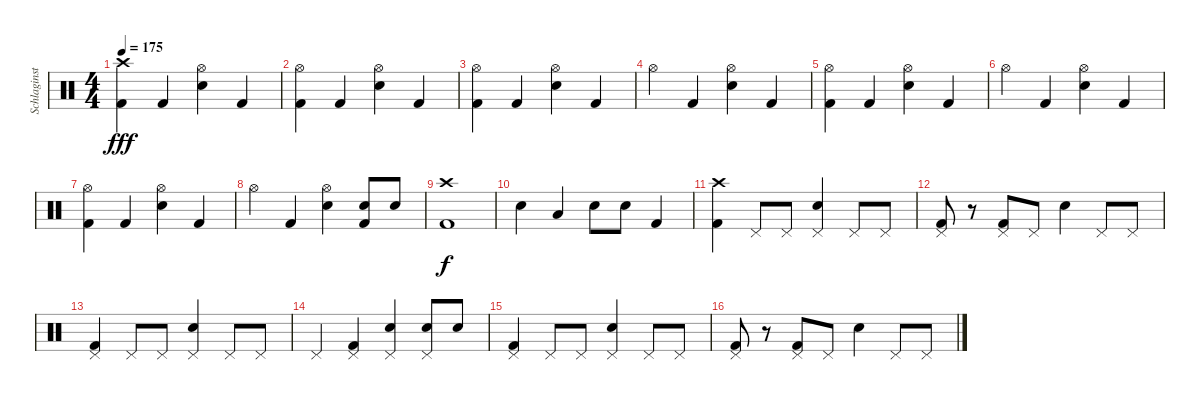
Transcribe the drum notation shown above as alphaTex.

\track ("Schlaginstrumente - Auswahl" "Schlaginst") {instrument percussion}
\staff {score}
\articulation defaults
\ts (4 4)
\tempo 175
\clef neutral
\ks c
("Crash high (hit)" "Kick (hit) 2").4{dy fff} "Kick (hit) 2".4 ("Hi-Hat (open)" "Electric Snare (hit)").4 "Kick (hit) 2".4 |
("Hi-Hat (open)" "Kick (hit) 2").4 "Kick (hit) 2".4 ("Hi-Hat (open)" "Electric Snare (hit)").4 "Kick (hit) 2".4 |
("Hi-Hat (open)" "Kick (hit) 2").4 "Kick (hit) 2".4 ("Hi-Hat (open)" "Electric Snare (hit)").4 "Kick (hit) 2".4 |
"Hi-Hat (open)".4 "Kick (hit) 2".4 ("Hi-Hat (open)" "Electric Snare (hit)").4 "Kick (hit) 2".4 |
("Hi-Hat (open)" "Kick (hit) 2").4 "Kick (hit) 2".4 ("Hi-Hat (open)" "Electric Snare (hit)").4 "Kick (hit) 2".4 |
"Hi-Hat (open)".4 "Kick (hit) 2".4 ("Hi-Hat (open)" "Electric Snare (hit)").4 "Kick (hit) 2".4 |
("Hi-Hat (open)" "Kick (hit) 2").4 "Kick (hit) 2".4 ("Hi-Hat (open)" "Electric Snare (hit)").4 "Kick (hit) 2".4 |
"Hi-Hat (open)".4 "Kick (hit) 2".4 ("Hi-Hat (open)" "Electric Snare (hit)").4 ("Electric Snare (hit)" "Kick (hit) 2").8 "Electric Snare (hit)".8 |
("Kick (hit) 2" "Crash high (hit)").1{dy f} |
"Electric Snare (hit)".4 "Low Floor Tom (hit)".4 "Electric Snare (hit)".8 "Electric Snare (hit)".8 "Kick (hit) 2".4 |
("Crash high (hit)" "Kick (hit) 2").4 "Pedal Hi-Hat (hit)".8 "Pedal Hi-Hat (hit)".8 ("Pedal Hi-Hat (hit)" "Electric Snare (hit)").4 "Pedal Hi-Hat (hit)".8 "Pedal Hi-Hat (hit)".8 |
("Pedal Hi-Hat (hit)" "Kick (hit) 2").8 r.8 ("Kick (hit) 2" "Pedal Hi-Hat (hit)").8 "Pedal Hi-Hat (hit)".8 "Electric Snare (hit)".4 "Pedal Hi-Hat (hit)".8 "Pedal Hi-Hat (hit)".8 |
("Pedal Hi-Hat (hit)" "Kick (hit) 2").4 "Pedal Hi-Hat (hit)".8 "Pedal Hi-Hat (hit)".8 ("Pedal Hi-Hat (hit)" "Electric Snare (hit)").4 "Pedal Hi-Hat (hit)".8 "Pedal Hi-Hat (hit)".8 |
"Pedal Hi-Hat (hit)".4 ("Kick (hit) 2" "Pedal Hi-Hat (hit)").4 ("Electric Snare (hit)" "Pedal Hi-Hat (hit)").4 ("Electric Snare (hit)" "Pedal Hi-Hat (hit)").8 "Electric Snare (hit)".8 |
("Pedal Hi-Hat (hit)" "Kick (hit) 2").4 "Pedal Hi-Hat (hit)".8 "Pedal Hi-Hat (hit)".8 ("Pedal Hi-Hat (hit)" "Electric Snare (hit)").4 "Pedal Hi-Hat (hit)".8 "Pedal Hi-Hat (hit)".8 |
("Pedal Hi-Hat (hit)" "Kick (hit) 2").8 r.8 ("Kick (hit) 2" "Pedal Hi-Hat (hit)").8 "Pedal Hi-Hat (hit)".8 "Electric Snare (hit)".4 "Pedal Hi-Hat (hit)".8 "Pedal Hi-Hat (hit)".8
